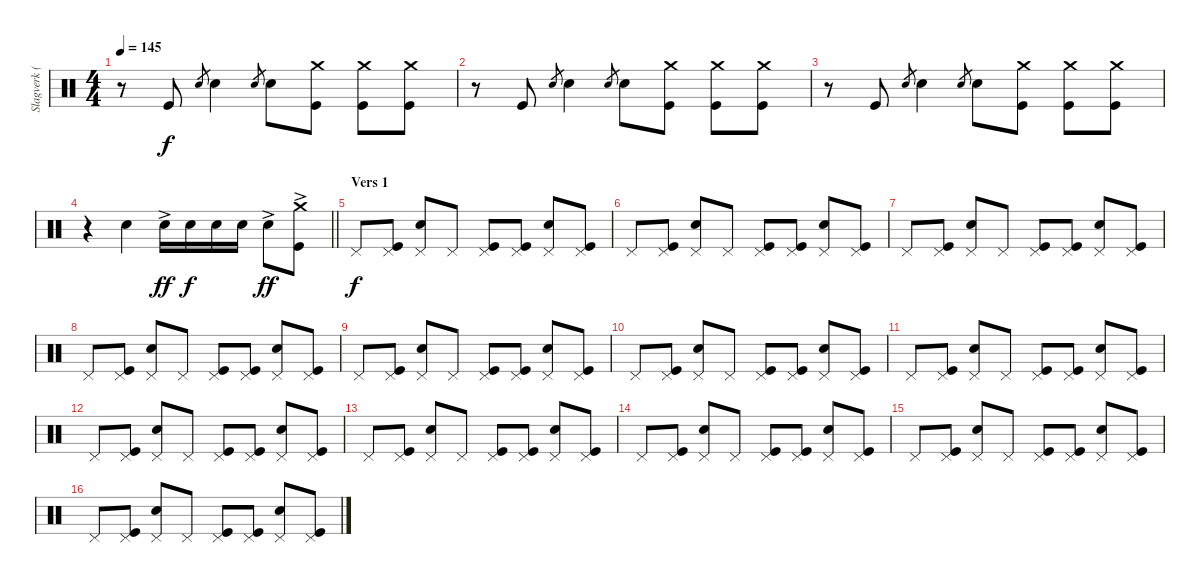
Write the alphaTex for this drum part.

\track ("Slagverk (Jan)" "Slagverk (") {instrument percussion}
\staff {score}
\articulation defaults
\ts (4 4)
\tempo 145
\clef neutral
\ks c
r.8{dy f} "Kick (hit)".8 "Snare (hit) 2".8{gr} "Snare (hit) 2".4 "Snare (hit) 2".8{gr} "Snare (hit) 2".8 ("Crash medium (hit)" "Kick (hit)").8 ("Crash medium (hit)" "Kick (hit)").8 ("Crash medium (hit)" "Kick (hit)").8 |
r.8 "Kick (hit)".8 "Snare (hit) 2".8{gr} "Snare (hit) 2".4 "Snare (hit) 2".8{gr} "Snare (hit) 2".8 ("Crash medium (hit)" "Kick (hit)").8 ("Crash medium (hit)" "Kick (hit)").8 ("Crash medium (hit)" "Kick (hit)").8 |
r.8 "Kick (hit)".8 "Snare (hit) 2".8{gr} "Snare (hit) 2".4 "Snare (hit) 2".8{gr} "Snare (hit) 2".8 ("Crash medium (hit)" "Kick (hit)").8 ("Crash medium (hit)" "Kick (hit)").8 ("Crash medium (hit)" "Kick (hit)").8 |
\barLineRight lightlight
r.4 "Snare (hit) 2".4 "Snare (hit) 2"{ac}.16{dy ff} "Snare (hit) 2".16{dy f} "Snare (hit) 2".16 "Snare (hit) 2".16 "Snare (hit) 2"{ac}.8{dy ff} ("Crash medium (hit)"{ac} "Kick (hit)"{ac}).8 |
\section ("" "Vers 1")
"Pedal Hi-Hat (hit)".8{dy f} ("Pedal Hi-Hat (hit)" "Kick (hit)").8 ("Pedal Hi-Hat (hit)" "Snare (hit) 2").8 "Pedal Hi-Hat (hit)".8 ("Pedal Hi-Hat (hit)" "Kick (hit)").8 ("Pedal Hi-Hat (hit)" "Kick (hit)").8 ("Pedal Hi-Hat (hit)" "Snare (hit) 2").8 ("Pedal Hi-Hat (hit)" "Kick (hit)").8 |
"Pedal Hi-Hat (hit)".8 ("Pedal Hi-Hat (hit)" "Kick (hit)").8 ("Pedal Hi-Hat (hit)" "Snare (hit) 2").8 "Pedal Hi-Hat (hit)".8 ("Pedal Hi-Hat (hit)" "Kick (hit)").8 ("Pedal Hi-Hat (hit)" "Kick (hit)").8 ("Pedal Hi-Hat (hit)" "Snare (hit) 2").8 ("Pedal Hi-Hat (hit)" "Kick (hit)").8 |
"Pedal Hi-Hat (hit)".8 ("Pedal Hi-Hat (hit)" "Kick (hit)").8 ("Pedal Hi-Hat (hit)" "Snare (hit) 2").8 "Pedal Hi-Hat (hit)".8 ("Pedal Hi-Hat (hit)" "Kick (hit)").8 ("Pedal Hi-Hat (hit)" "Kick (hit)").8 ("Pedal Hi-Hat (hit)" "Snare (hit) 2").8 ("Pedal Hi-Hat (hit)" "Kick (hit)").8 |
"Pedal Hi-Hat (hit)".8 ("Pedal Hi-Hat (hit)" "Kick (hit)").8 ("Pedal Hi-Hat (hit)" "Snare (hit) 2").8 "Pedal Hi-Hat (hit)".8 ("Pedal Hi-Hat (hit)" "Kick (hit)").8 ("Pedal Hi-Hat (hit)" "Kick (hit)").8 ("Pedal Hi-Hat (hit)" "Snare (hit) 2").8 ("Pedal Hi-Hat (hit)" "Kick (hit)").8 |
"Pedal Hi-Hat (hit)".8 ("Pedal Hi-Hat (hit)" "Kick (hit)").8 ("Pedal Hi-Hat (hit)" "Snare (hit) 2").8 "Pedal Hi-Hat (hit)".8 ("Pedal Hi-Hat (hit)" "Kick (hit)").8 ("Pedal Hi-Hat (hit)" "Kick (hit)").8 ("Pedal Hi-Hat (hit)" "Snare (hit) 2").8 ("Pedal Hi-Hat (hit)" "Kick (hit)").8 |
"Pedal Hi-Hat (hit)".8 ("Pedal Hi-Hat (hit)" "Kick (hit)").8 ("Pedal Hi-Hat (hit)" "Snare (hit) 2").8 "Pedal Hi-Hat (hit)".8 ("Pedal Hi-Hat (hit)" "Kick (hit)").8 ("Pedal Hi-Hat (hit)" "Kick (hit)").8 ("Pedal Hi-Hat (hit)" "Snare (hit) 2").8 ("Pedal Hi-Hat (hit)" "Kick (hit)").8 |
"Pedal Hi-Hat (hit)".8 ("Pedal Hi-Hat (hit)" "Kick (hit)").8 ("Pedal Hi-Hat (hit)" "Snare (hit) 2").8 "Pedal Hi-Hat (hit)".8 ("Pedal Hi-Hat (hit)" "Kick (hit)").8 ("Pedal Hi-Hat (hit)" "Kick (hit)").8 ("Pedal Hi-Hat (hit)" "Snare (hit) 2").8 ("Pedal Hi-Hat (hit)" "Kick (hit)").8 |
"Pedal Hi-Hat (hit)".8 ("Pedal Hi-Hat (hit)" "Kick (hit)").8 ("Pedal Hi-Hat (hit)" "Snare (hit) 2").8 "Pedal Hi-Hat (hit)".8 ("Pedal Hi-Hat (hit)" "Kick (hit)").8 ("Pedal Hi-Hat (hit)" "Kick (hit)").8 ("Pedal Hi-Hat (hit)" "Snare (hit) 2").8 ("Pedal Hi-Hat (hit)" "Kick (hit)").8 |
"Pedal Hi-Hat (hit)".8 ("Pedal Hi-Hat (hit)" "Kick (hit)").8 ("Pedal Hi-Hat (hit)" "Snare (hit) 2").8 "Pedal Hi-Hat (hit)".8 ("Pedal Hi-Hat (hit)" "Kick (hit)").8 ("Pedal Hi-Hat (hit)" "Kick (hit)").8 ("Pedal Hi-Hat (hit)" "Snare (hit) 2").8 ("Pedal Hi-Hat (hit)" "Kick (hit)").8 |
"Pedal Hi-Hat (hit)".8 ("Pedal Hi-Hat (hit)" "Kick (hit)").8 ("Pedal Hi-Hat (hit)" "Snare (hit) 2").8 "Pedal Hi-Hat (hit)".8 ("Pedal Hi-Hat (hit)" "Kick (hit)").8 ("Pedal Hi-Hat (hit)" "Kick (hit)").8 ("Pedal Hi-Hat (hit)" "Snare (hit) 2").8 ("Pedal Hi-Hat (hit)" "Kick (hit)").8 |
"Pedal Hi-Hat (hit)".8 ("Pedal Hi-Hat (hit)" "Kick (hit)").8 ("Pedal Hi-Hat (hit)" "Snare (hit) 2").8 "Pedal Hi-Hat (hit)".8 ("Pedal Hi-Hat (hit)" "Kick (hit)").8 ("Pedal Hi-Hat (hit)" "Kick (hit)").8 ("Pedal Hi-Hat (hit)" "Snare (hit) 2").8 ("Pedal Hi-Hat (hit)" "Kick (hit)").8 |
"Pedal Hi-Hat (hit)".8 ("Pedal Hi-Hat (hit)" "Kick (hit)").8 ("Pedal Hi-Hat (hit)" "Snare (hit) 2").8 "Pedal Hi-Hat (hit)".8 ("Pedal Hi-Hat (hit)" "Kick (hit)").8 ("Pedal Hi-Hat (hit)" "Kick (hit)").8 ("Pedal Hi-Hat (hit)" "Snare (hit) 2").8 ("Pedal Hi-Hat (hit)" "Kick (hit)").8
